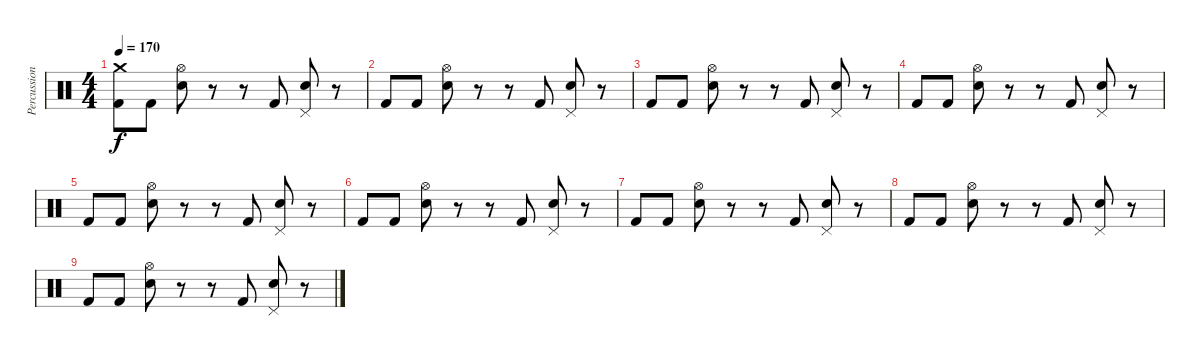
\track ("Percussion" "Percussion") {instrument percussion}
\staff {score}
\articulation defaults
\ts (4 4)
\tempo 170
\clef neutral
\ks c
("Crash medium (hit)" "Kick (hit) 2").8{dy f} "Kick (hit) 2".8 ("Hi-Hat (open)" "Snare (hit) 2").8 r.8 r.8 "Kick (hit) 2".8 ("Snare (hit) 2" "Pedal Hi-Hat (hit)").8 r.8 |
"Kick (hit) 2".8 "Kick (hit) 2".8 ("Hi-Hat (open)" "Snare (hit) 2").8 r.8 r.8 "Kick (hit) 2".8 ("Snare (hit) 2" "Pedal Hi-Hat (hit)").8 r.8 |
"Kick (hit) 2".8 "Kick (hit) 2".8 ("Hi-Hat (open)" "Snare (hit) 2").8 r.8 r.8 "Kick (hit) 2".8 ("Snare (hit) 2" "Pedal Hi-Hat (hit)").8 r.8 |
"Kick (hit) 2".8 "Kick (hit) 2".8 ("Hi-Hat (open)" "Snare (hit) 2").8 r.8 r.8 "Kick (hit) 2".8 ("Snare (hit) 2" "Pedal Hi-Hat (hit)").8 r.8 |
"Kick (hit) 2".8 "Kick (hit) 2".8 ("Hi-Hat (open)" "Snare (hit) 2").8 r.8 r.8 "Kick (hit) 2".8 ("Snare (hit) 2" "Pedal Hi-Hat (hit)").8 r.8 |
"Kick (hit) 2".8 "Kick (hit) 2".8 ("Hi-Hat (open)" "Snare (hit) 2").8 r.8 r.8 "Kick (hit) 2".8 ("Snare (hit) 2" "Pedal Hi-Hat (hit)").8 r.8 |
"Kick (hit) 2".8 "Kick (hit) 2".8 ("Hi-Hat (open)" "Snare (hit) 2").8 r.8 r.8 "Kick (hit) 2".8 ("Snare (hit) 2" "Pedal Hi-Hat (hit)").8 r.8 |
"Kick (hit) 2".8 "Kick (hit) 2".8 ("Hi-Hat (open)" "Snare (hit) 2").8 r.8 r.8 "Kick (hit) 2".8 ("Snare (hit) 2" "Pedal Hi-Hat (hit)").8 r.8 |
"Kick (hit) 2".8 "Kick (hit) 2".8 ("Hi-Hat (open)" "Snare (hit) 2").8 r.8 r.8 "Kick (hit) 2".8 ("Snare (hit) 2" "Pedal Hi-Hat (hit)").8 r.8
